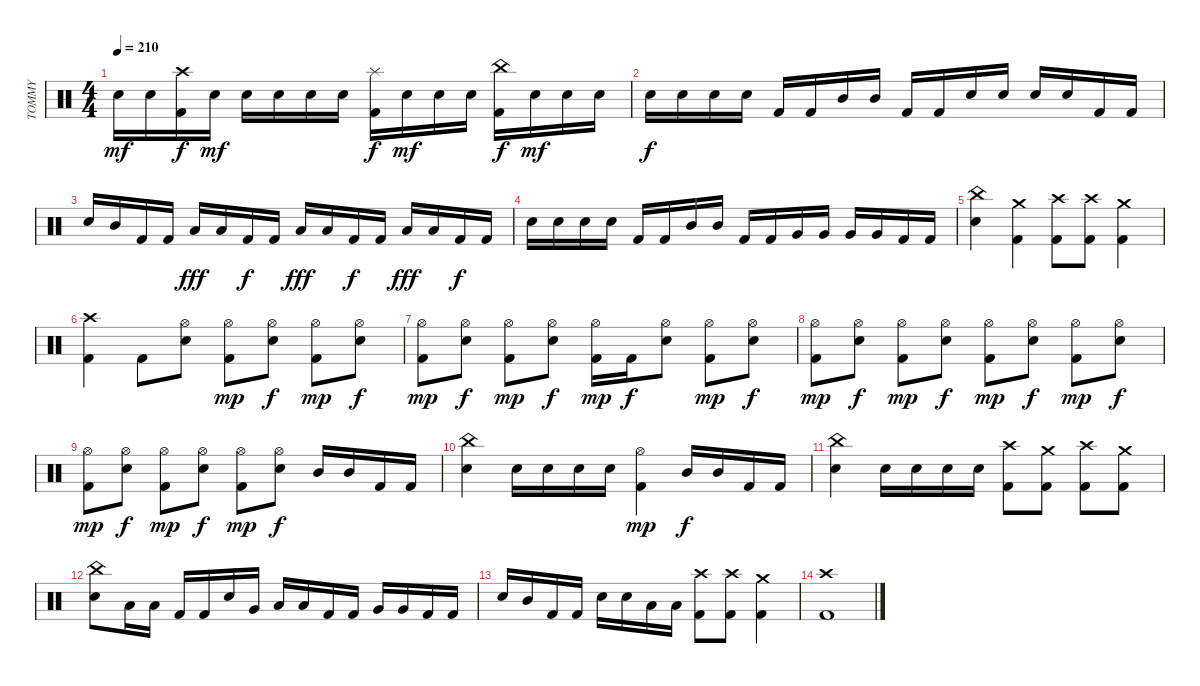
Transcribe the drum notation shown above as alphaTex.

\track ("TOMMY" "TOMMY") {instrument percussion}
\staff {score}
\articulation defaults
\ts (4 4)
\tempo 210
\clef neutral
\ks c "Snare (hit) 2".16{dy mf} "Snare (hit) 2".16
("Kick (hit) 2" "Crash high (hit)").16{dy f} "Snare (hit) 2".16{dy mf} "Snare (hit) 2".16 "Snare (hit) 2".16 "Snare (hit) 2".16 "Snare (hit) 2".16 ("Kick (hit) 2" "Splash (hit)").16{dy f} "Snare (hit) 2".16{dy mf} "Snare (hit) 2".16 "Snare (hit) 2".16 ("Kick (hit) 2" "China (hit)").16{dy f} "Snare (hit) 2".16{dy mf} "Snare (hit) 2".16 "Snare (hit) 2".16 |
"Snare (hit) 2".16{dy f} "Snare (hit) 2".16 "Snare (hit) 2".16 "Snare (hit) 2".16 "Kick (hit) 2".16 "Kick (hit) 2".16 "Mid Tom (hit)".16 "Mid Tom (hit)".16 "Kick (hit) 2".16 "Kick (hit) 2".16 "Snare (hit) 2".16 "Snare (hit) 2".16 "Snare (hit) 2".16 "Snare (hit) 2".16 "Kick (hit) 2".16 "Kick (hit) 2".16 |
"Snare (hit) 2".16 "Mid Tom (hit)".16 "Kick (hit) 2".16 "Kick (hit) 2".16 "Low Floor Tom (hit)".16{dy fff} "Low Floor Tom (hit)".16 "Kick (hit) 2".16{dy f} "Kick (hit) 2".16 "Low Floor Tom (hit)".16{dy fff} "Low Floor Tom (hit)".16 "Kick (hit) 2".16{dy f} "Kick (hit) 2".16 "Low Floor Tom (hit)".16{dy fff} "Low Floor Tom (hit)".16 "Kick (hit) 2".16{dy f} "Kick (hit) 2".16 |
"Snare (hit) 2".16 "Snare (hit) 2".16 "Snare (hit) 2".16 "Snare (hit) 2".16 "Kick (hit) 2".16 "Kick (hit) 2".16 "Mid Tom (hit)".16 "Mid Tom (hit)".16 "Kick (hit) 2".16 "Kick (hit) 2".16 "Very Low Tom (hit)".16 "Very Low Tom (hit)".16 "Very Low Tom (hit)".16 "Very Low Tom (hit)".16 "Kick (hit) 2".16 "Kick (hit) 2".16 |
("Snare (hit) 2" "China (hit)").4 ("Kick (hit) 2" "Crash medium (hit)").4 ("Kick (hit) 2" "Crash high (hit)").8 ("Kick (hit) 2" "Crash high (hit)").8 ("Kick (hit) 2" "Crash medium (hit)").4 |
("Kick (hit) 2" "Crash high (hit)").4 "Kick (hit) 2".8 ("Snare (hit) 2" "Hi-Hat (open)").8 ("Kick (hit) 2" "Hi-Hat (open)").8{dy mp} ("Snare (hit) 2" "Hi-Hat (open)").8{dy f} ("Kick (hit) 2" "Hi-Hat (open)").8{dy mp} ("Snare (hit) 2" "Hi-Hat (open)").8{dy f} |
("Kick (hit) 2" "Hi-Hat (open)").8{dy mp} ("Snare (hit) 2" "Hi-Hat (open)").8{dy f} ("Kick (hit) 2" "Hi-Hat (open)").8{dy mp} ("Snare (hit) 2" "Hi-Hat (open)").8{dy f} ("Kick (hit) 2" "Hi-Hat (open)").16{dy mp} "Kick (hit) 2".16{dy f} ("Snare (hit) 2" "Hi-Hat (open)").8 ("Kick (hit) 2" "Hi-Hat (open)").8{dy mp} ("Snare (hit) 2" "Hi-Hat (open)").8{dy f} |
("Kick (hit) 2" "Hi-Hat (open)").8{dy mp} ("Snare (hit) 2" "Hi-Hat (open)").8{dy f} ("Kick (hit) 2" "Hi-Hat (open)").8{dy mp} ("Snare (hit) 2" "Hi-Hat (open)").8{dy f} ("Kick (hit) 2" "Hi-Hat (open)").8{dy mp} ("Snare (hit) 2" "Hi-Hat (open)").8{dy f} ("Kick (hit) 2" "Hi-Hat (open)").8{dy mp} ("Snare (hit) 2" "Hi-Hat (open)").8{dy f} |
("Kick (hit) 2" "Hi-Hat (open)").8{dy mp} ("Snare (hit) 2" "Hi-Hat (open)").8{dy f} ("Kick (hit) 2" "Hi-Hat (open)").8{dy mp} ("Snare (hit) 2" "Hi-Hat (open)").8{dy f} ("Kick (hit) 2" "Hi-Hat (open)").8{dy mp} ("Snare (hit) 2" "Hi-Hat (open)").8{dy f} "Mid Tom (hit)".16 "Mid Tom (hit)".16 "Kick (hit) 2".16 "Kick (hit) 2".16 |
("Snare (hit) 2" "China (hit)").4 "Snare (hit) 2".16 "Snare (hit) 2".16 "Snare (hit) 2".16 "Snare (hit) 2".16 ("Kick (hit) 2" "Hi-Hat (open)").4{dy mp} "Mid Tom (hit)".16{dy f} "Mid Tom (hit)".16 "Kick (hit) 2".16 "Kick (hit) 2".16 |
("Snare (hit) 2" "China (hit)").4 "Snare (hit) 2".16 "Snare (hit) 2".16 "Snare (hit) 2".16 "Snare (hit) 2".16 ("Kick (hit) 2" "Crash high (hit)").8 ("Kick (hit) 2" "Crash medium (hit)").8 ("Kick (hit) 2" "Crash high (hit)").8 ("Kick (hit) 2" "Crash medium (hit)").8 |
("Snare (hit) 2" "China (hit)").8 "Low Floor Tom (hit)".16 "Low Floor Tom (hit)".16 "Kick (hit) 2".16 "Kick (hit) 2".16 "Snare (hit) 2".16 "Very Low Tom (hit)".16 "Low Floor Tom (hit)".16 "Low Floor Tom (hit)".16 "Kick (hit) 2".16 "Kick (hit) 2".16 "Very Low Tom (hit)".16 "Very Low Tom (hit)".16 "Kick (hit) 2".16 "Kick (hit) 2".16 |
"Snare (hit) 2".16 "Mid Tom (hit)".16 "Kick (hit) 2".16 "Kick (hit) 2".16 "Snare (hit) 2".16 "Snare (hit) 2".16 "Low Floor Tom (hit)".16 "Low Floor Tom (hit)".16 ("Kick (hit) 2" "Crash high (hit)").8 ("Kick (hit) 2" "Crash high (hit)").8 ("Kick (hit) 2" "Crash medium (hit)").4 |
("Kick (hit) 2" "Crash high (hit)").1
